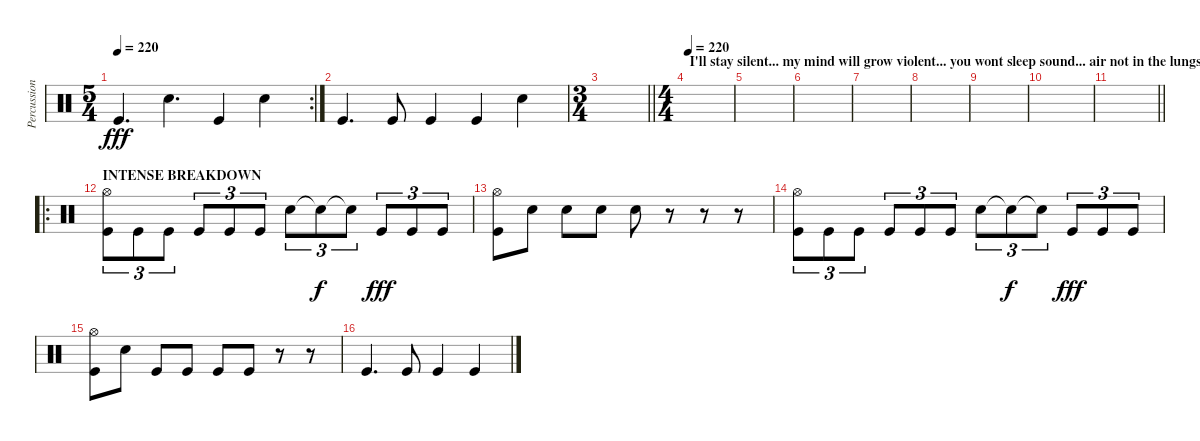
\track ("Percussion" "Percussion") {instrument percussion}
\staff {score}
\articulation defaults
\rc 2
\ts (5 4)
\tempo 220
\clef neutral
\ks c "Kick (hit)".4{d dy fff} "Electric Snare (hit)".4{d} "Kick (hit)".4 "Electric Snare (hit)".4
|
"Kick (hit)".4{d} "Kick (hit)".8 "Kick (hit)".4 "Kick (hit)".4 "Electric Snare (hit)".4 |
\ts (3 4)
\barLineRight lightlight
|
\ts (4 4)
\section ("" "I'll stay silent... my mind will grow violent... you wont sleep sound... air not in the lungs")
\tempo 220
|
|
|
|
|
|
|
\barLineRight lightlight
|
\ro
\section ("" "INTENSE BREAKDOWN")
("Hi-Hat (open)" "Kick (hit)").8{tu (3 2)} "Kick (hit)".8{tu (3 2)} "Kick (hit)".8{tu (3 2)} "Kick (hit)".8{tu (3 2)} "Kick (hit)".8{tu (3 2)} "Kick (hit)".8{tu (3 2)} "Electric Snare (hit)".8{tu (3 2)} "Snare (hit)"{t}.8{tu (3 2) dy f} "Snare (hit)"{t}.8{tu (3 2)} "Kick (hit)".8{tu (3 2) dy fff} "Kick (hit)".8{tu (3 2)} "Kick (hit)".8{tu (3 2)} |
("Hi-Hat (open)" "Kick (hit)").8 "Electric Snare (hit)".8 "Electric Snare (hit)".8 "Electric Snare (hit)".8 "Electric Snare (hit)".8 r.8 r.8 r.8 |
("Hi-Hat (open)" "Kick (hit)").8{tu (3 2)} "Kick (hit)".8{tu (3 2)} "Kick (hit)".8{tu (3 2)} "Kick (hit)".8{tu (3 2)} "Kick (hit)".8{tu (3 2)} "Kick (hit)".8{tu (3 2)} "Electric Snare (hit)".8{tu (3 2)} "Snare (hit)"{t}.8{tu (3 2) dy f} "Snare (hit)"{t}.8{tu (3 2)} "Kick (hit)".8{tu (3 2) dy fff} "Kick (hit)".8{tu (3 2)} "Kick (hit)".8{tu (3 2)} |
("Hi-Hat (open)" "Kick (hit)").8 "Electric Snare (hit)".8 "Kick (hit)".8 "Kick (hit)".8 "Kick (hit)".8 "Kick (hit)".8 r.8 r.8 |
"Kick (hit)".4{d} "Kick (hit)".8 "Kick (hit)".4 "Kick (hit)".4
